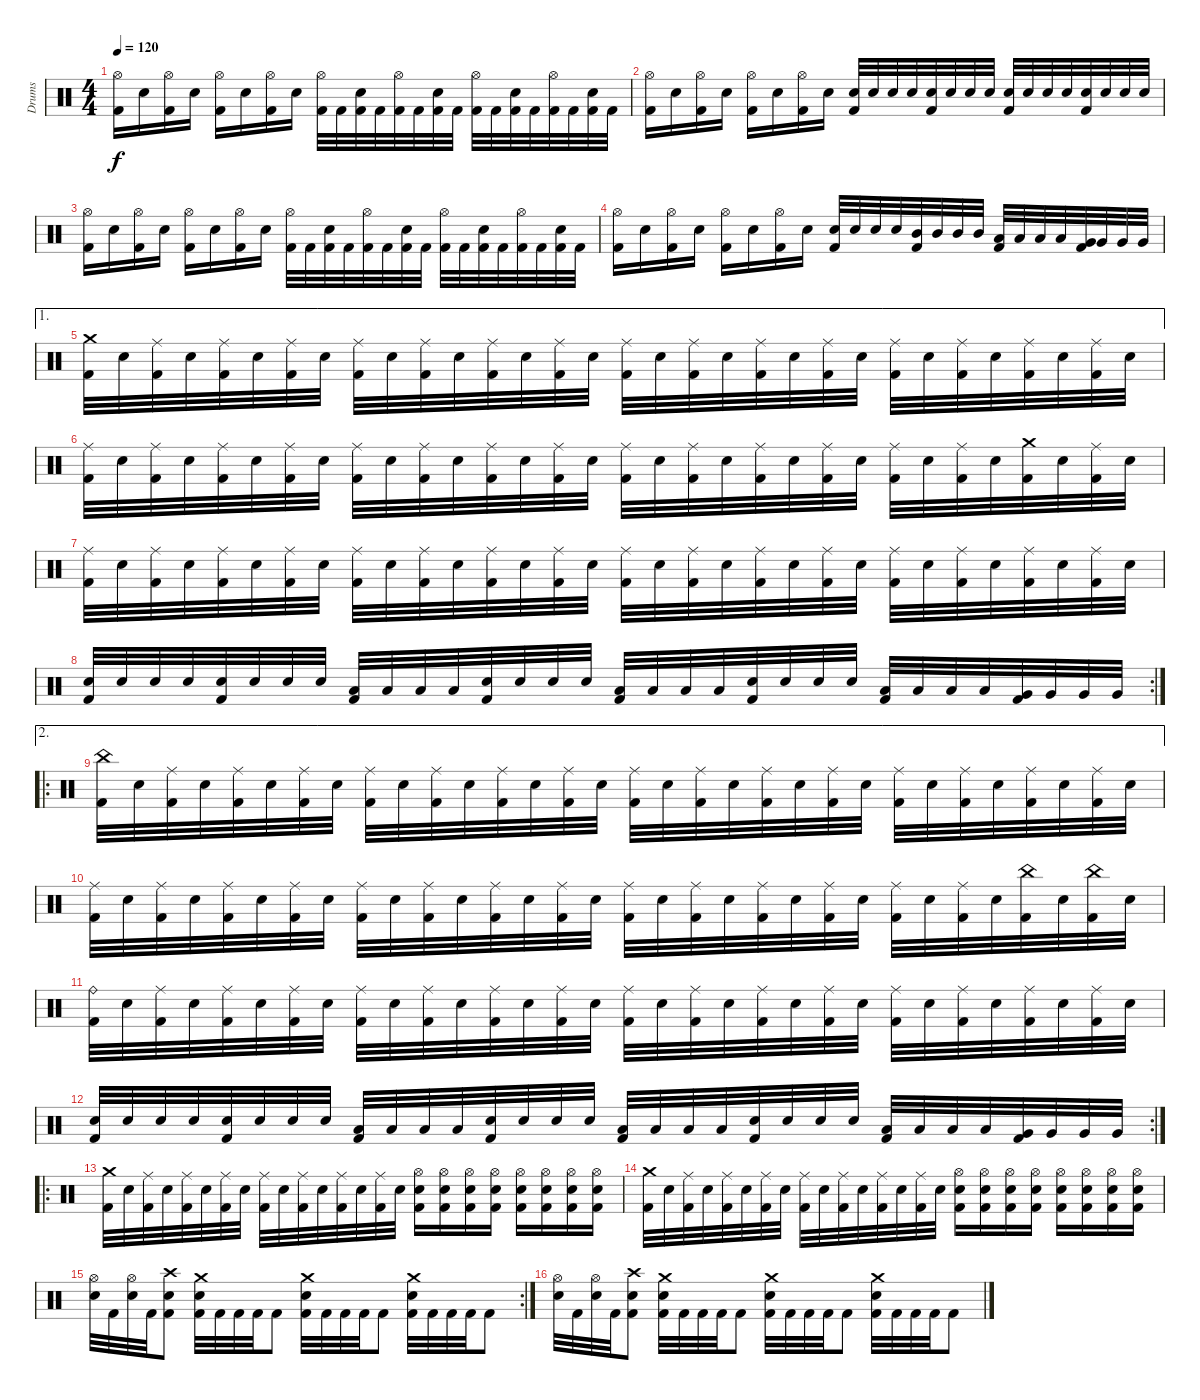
\track ("Drums" "Drums") {instrument percussion}
\staff {score}
\articulation defaults
\ts (4 4)
\tempo 120
\clef neutral
\ks c
("Hi-Hat (open)" "Kick (hit) 2").16{dy f} "Electric Snare (hit)".16 ("Hi-Hat (open)" "Kick (hit) 2").16 "Electric Snare (hit)".16 ("Hi-Hat (open)" "Kick (hit) 2").16 "Electric Snare (hit)".16 ("Hi-Hat (open)" "Kick (hit) 2").16 "Electric Snare (hit)".16 ("Hi-Hat (open)" "Kick (hit) 2").32 "Kick (hit) 2".32 ("Electric Snare (hit)" "Kick (hit) 2").32 "Kick (hit) 2".32 ("Hi-Hat (open)" "Kick (hit) 2").32 "Kick (hit) 2".32 ("Electric Snare (hit)" "Kick (hit) 2").32 "Kick (hit) 2".32 ("Hi-Hat (open)" "Kick (hit) 2").32 "Kick (hit) 2".32 ("Electric Snare (hit)" "Kick (hit) 2").32 "Kick (hit) 2".32 ("Hi-Hat (open)" "Kick (hit) 2").32 "Kick (hit) 2".32 ("Electric Snare (hit)" "Kick (hit) 2").32 "Kick (hit) 2".32 |
("Hi-Hat (open)" "Kick (hit) 2").16 "Electric Snare (hit)".16 ("Hi-Hat (open)" "Kick (hit) 2").16 "Electric Snare (hit)".16 ("Hi-Hat (open)" "Kick (hit) 2").16 "Electric Snare (hit)".16 ("Hi-Hat (open)" "Kick (hit) 2").16 "Electric Snare (hit)".16 ("Electric Snare (hit)" "Kick (hit) 2").32 "Electric Snare (hit)".32 "Electric Snare (hit)".32 "Electric Snare (hit)".32 ("Electric Snare (hit)" "Kick (hit) 2").32 "Electric Snare (hit)".32 "Electric Snare (hit)".32 "Electric Snare (hit)".32 ("Electric Snare (hit)" "Kick (hit) 2").32 "Electric Snare (hit)".32 "Electric Snare (hit)".32 "Electric Snare (hit)".32 ("Electric Snare (hit)" "Kick (hit) 2").32 "Electric Snare (hit)".32 "Electric Snare (hit)".32 "Electric Snare (hit)".32 |
("Hi-Hat (open)" "Kick (hit) 2").16 "Electric Snare (hit)".16 ("Hi-Hat (open)" "Kick (hit) 2").16 "Electric Snare (hit)".16 ("Hi-Hat (open)" "Kick (hit) 2").16 "Electric Snare (hit)".16 ("Hi-Hat (open)" "Kick (hit) 2").16 "Electric Snare (hit)".16 ("Hi-Hat (open)" "Kick (hit) 2").32 "Kick (hit) 2".32 ("Electric Snare (hit)" "Kick (hit) 2").32 "Kick (hit) 2".32 ("Hi-Hat (open)" "Kick (hit) 2").32 "Kick (hit) 2".32 ("Electric Snare (hit)" "Kick (hit) 2").32 "Kick (hit) 2".32 ("Hi-Hat (open)" "Kick (hit) 2").32 "Kick (hit) 2".32 ("Electric Snare (hit)" "Kick (hit) 2").32 "Kick (hit) 2".32 ("Hi-Hat (open)" "Kick (hit) 2").32 "Kick (hit) 2".32 ("Electric Snare (hit)" "Kick (hit) 2").32 "Kick (hit) 2".32 |
("Hi-Hat (open)" "Kick (hit) 2").16 "Electric Snare (hit)".16 ("Hi-Hat (open)" "Kick (hit) 2").16 "Electric Snare (hit)".16 ("Hi-Hat (open)" "Kick (hit) 2").16 "Electric Snare (hit)".16 ("Hi-Hat (open)" "Kick (hit) 2").16 "Electric Snare (hit)".16 ("Electric Snare (hit)" "Kick (hit) 2").32 "Electric Snare (hit)".32 "Electric Snare (hit)".32 "Electric Snare (hit)".32 ("Mid Tom (hit)" "Kick (hit) 2").32 "Mid Tom (hit)".32 "Mid Tom (hit)".32 "Mid Tom (hit)".32 ("Low Tom (hit)" "Kick (hit) 2").32 "Low Tom (hit)".32 "Low Tom (hit)".32 "Low Tom (hit)".32 ("Very Low Tom (hit)" "Kick (hit) 2").32 "Very Low Tom (hit)".32 "Very Low Tom (hit)".32 "Very Low Tom (hit)".32 |
\ae 1
("Crash medium (hit)" "Kick (hit) 2").32 "Electric Snare (hit)".32 ("Ride (middle)" "Kick (hit) 2").32 "Electric Snare (hit)".32 ("Ride (middle)" "Kick (hit) 2").32 "Electric Snare (hit)".32 ("Ride (middle)" "Kick (hit) 2").32 "Electric Snare (hit)".32 ("Ride (middle)" "Kick (hit) 2").32 "Electric Snare (hit)".32 ("Ride (middle)" "Kick (hit) 2").32 "Electric Snare (hit)".32 ("Ride (middle)" "Kick (hit) 2").32 "Electric Snare (hit)".32 ("Ride (middle)" "Kick (hit) 2").32 "Electric Snare (hit)".32 ("Ride (middle)" "Kick (hit) 2").32 "Electric Snare (hit)".32 ("Ride (middle)" "Kick (hit) 2").32 "Electric Snare (hit)".32 ("Ride (middle)" "Kick (hit) 2").32 "Electric Snare (hit)".32 ("Ride (middle)" "Kick (hit) 2").32 "Electric Snare (hit)".32 ("Ride (middle)" "Kick (hit) 2").32 "Electric Snare (hit)".32 ("Ride (middle)" "Kick (hit) 2").32 "Electric Snare (hit)".32 ("Ride (middle)" "Kick (hit) 2").32 "Electric Snare (hit)".32 ("Ride (middle)" "Kick (hit) 2").32 "Electric Snare (hit)".32 |
("Ride (middle)" "Kick (hit) 2").32 "Electric Snare (hit)".32 ("Ride (middle)" "Kick (hit) 2").32 "Electric Snare (hit)".32 ("Ride (middle)" "Kick (hit) 2").32 "Electric Snare (hit)".32 ("Ride (middle)" "Kick (hit) 2").32 "Electric Snare (hit)".32 ("Ride (middle)" "Kick (hit) 2").32 "Electric Snare (hit)".32 ("Ride (middle)" "Kick (hit) 2").32 "Electric Snare (hit)".32 ("Ride (middle)" "Kick (hit) 2").32 "Electric Snare (hit)".32 ("Ride (middle)" "Kick (hit) 2").32 "Electric Snare (hit)".32 ("Ride (middle)" "Kick (hit) 2").32 "Electric Snare (hit)".32 ("Ride (middle)" "Kick (hit) 2").32 "Electric Snare (hit)".32 ("Ride (middle)" "Kick (hit) 2").32 "Electric Snare (hit)".32 ("Ride (middle)" "Kick (hit) 2").32 "Electric Snare (hit)".32 ("Ride (middle)" "Kick (hit) 2").32 "Electric Snare (hit)".32 ("Ride (middle)" "Kick (hit) 2").32 "Electric Snare (hit)".32 ("Crash medium (hit)" "Kick (hit) 2").32 "Electric Snare (hit)".32 ("Ride (middle)" "Kick (hit) 2").32 "Electric Snare (hit)".32 |
("Ride (middle)" "Kick (hit) 2").32 "Electric Snare (hit)".32 ("Ride (middle)" "Kick (hit) 2").32 "Electric Snare (hit)".32 ("Ride (middle)" "Kick (hit) 2").32 "Electric Snare (hit)".32 ("Ride (middle)" "Kick (hit) 2").32 "Electric Snare (hit)".32 ("Ride (middle)" "Kick (hit) 2").32 "Electric Snare (hit)".32 ("Ride (middle)" "Kick (hit) 2").32 "Electric Snare (hit)".32 ("Ride (middle)" "Kick (hit) 2").32 "Electric Snare (hit)".32 ("Ride (middle)" "Kick (hit) 2").32 "Electric Snare (hit)".32 ("Ride (middle)" "Kick (hit) 2").32 "Electric Snare (hit)".32 ("Ride (middle)" "Kick (hit) 2").32 "Electric Snare (hit)".32 ("Ride (middle)" "Kick (hit) 2").32 "Electric Snare (hit)".32 ("Ride (middle)" "Kick (hit) 2").32 "Electric Snare (hit)".32 ("Ride (middle)" "Kick (hit) 2").32 "Electric Snare (hit)".32 ("Ride (middle)" "Kick (hit) 2").32 "Electric Snare (hit)".32 ("Ride (middle)" "Kick (hit) 2").32 "Electric Snare (hit)".32 ("Ride (middle)" "Kick (hit) 2").32 "Electric Snare (hit)".32 |
\rc 2
("Electric Snare (hit)" "Kick (hit) 2").32 "Electric Snare (hit)".32 "Electric Snare (hit)".32 "Electric Snare (hit)".32 ("Electric Snare (hit)" "Kick (hit) 2").32 "Electric Snare (hit)".32 "Electric Snare (hit)".32 "Electric Snare (hit)".32 ("Low Tom (hit)" "Kick (hit) 2").32 "Low Tom (hit)".32 "Low Tom (hit)".32 "Low Tom (hit)".32 ("Electric Snare (hit)" "Kick (hit) 2").32 "Electric Snare (hit)".32 "Electric Snare (hit)".32 "Electric Snare (hit)".32 ("Low Tom (hit)" "Kick (hit) 2").32 "Low Tom (hit)".32 "Low Tom (hit)".32 "Low Tom (hit)".32 ("Electric Snare (hit)" "Kick (hit) 2").32 "Electric Snare (hit)".32 "Electric Snare (hit)".32 "Electric Snare (hit)".32 ("Low Tom (hit)" "Kick (hit) 2").32 "Low Tom (hit)".32 "Low Tom (hit)".32 "Low Tom (hit)".32 ("Very Low Tom (hit)" "Kick (hit) 2").32 "Very Low Tom (hit)".32 "Very Low Tom (hit)".32 "Very Low Tom (hit)".32 |
\ae 2
\ro
("China (hit)" "Kick (hit) 2").32 "Electric Snare (hit)".32 ("Ride (middle)" "Kick (hit) 2").32 "Electric Snare (hit)".32 ("Ride (middle)" "Kick (hit) 2").32 "Electric Snare (hit)".32 ("Ride (middle)" "Kick (hit) 2").32 "Electric Snare (hit)".32 ("Ride (middle)" "Kick (hit) 2").32 "Electric Snare (hit)".32 ("Ride (middle)" "Kick (hit) 2").32 "Electric Snare (hit)".32 ("Ride (middle)" "Kick (hit) 2").32 "Electric Snare (hit)".32 ("Ride (middle)" "Kick (hit) 2").32 "Electric Snare (hit)".32 ("Ride (middle)" "Kick (hit) 2").32 "Electric Snare (hit)".32 ("Ride (middle)" "Kick (hit) 2").32 "Electric Snare (hit)".32 ("Ride (middle)" "Kick (hit) 2").32 "Electric Snare (hit)".32 ("Ride (middle)" "Kick (hit) 2").32 "Electric Snare (hit)".32 ("Ride (middle)" "Kick (hit) 2").32 "Electric Snare (hit)".32 ("Ride (middle)" "Kick (hit) 2").32 "Electric Snare (hit)".32 ("Ride (middle)" "Kick (hit) 2").32 "Electric Snare (hit)".32 ("Ride (middle)" "Kick (hit) 2").32 "Electric Snare (hit)".32 |
("Ride (middle)" "Kick (hit) 2").32 "Electric Snare (hit)".32 ("Ride (middle)" "Kick (hit) 2").32 "Electric Snare (hit)".32 ("Ride (middle)" "Kick (hit) 2").32 "Electric Snare (hit)".32 ("Ride (middle)" "Kick (hit) 2").32 "Electric Snare (hit)".32 ("Ride (middle)" "Kick (hit) 2").32 "Electric Snare (hit)".32 ("Ride (middle)" "Kick (hit) 2").32 "Electric Snare (hit)".32 ("Ride (middle)" "Kick (hit) 2").32 "Electric Snare (hit)".32 ("Ride (middle)" "Kick (hit) 2").32 "Electric Snare (hit)".32 ("Ride (middle)" "Kick (hit) 2").32 "Electric Snare (hit)".32 ("Ride (middle)" "Kick (hit) 2").32 "Electric Snare (hit)".32 ("Ride (middle)" "Kick (hit) 2").32 "Electric Snare (hit)".32 ("Ride (middle)" "Kick (hit) 2").32 "Electric Snare (hit)".32 ("Ride (middle)" "Kick (hit) 2").32 "Electric Snare (hit)".32 ("Ride (middle)" "Kick (hit) 2").32 "Electric Snare (hit)".32 ("China (hit)" "Kick (hit) 2").32 "Electric Snare (hit)".32 ("China (hit)" "Kick (hit) 2").32 "Electric Snare (hit)".32 |
("Ride (bell)" "Kick (hit) 2").32 "Electric Snare (hit)".32 ("Ride (middle)" "Kick (hit) 2").32 "Electric Snare (hit)".32 ("Ride (middle)" "Kick (hit) 2").32 "Electric Snare (hit)".32 ("Ride (middle)" "Kick (hit) 2").32 "Electric Snare (hit)".32 ("Ride (middle)" "Kick (hit) 2").32 "Electric Snare (hit)".32 ("Ride (middle)" "Kick (hit) 2").32 "Electric Snare (hit)".32 ("Ride (middle)" "Kick (hit) 2").32 "Electric Snare (hit)".32 ("Ride (middle)" "Kick (hit) 2").32 "Electric Snare (hit)".32 ("Ride (middle)" "Kick (hit) 2").32 "Electric Snare (hit)".32 ("Ride (middle)" "Kick (hit) 2").32 "Electric Snare (hit)".32 ("Ride (middle)" "Kick (hit) 2").32 "Electric Snare (hit)".32 ("Ride (middle)" "Kick (hit) 2").32 "Electric Snare (hit)".32 ("Ride (middle)" "Kick (hit) 2").32 "Electric Snare (hit)".32 ("Ride (middle)" "Kick (hit) 2").32 "Electric Snare (hit)".32 ("Ride (middle)" "Kick (hit) 2").32 "Electric Snare (hit)".32 ("Ride (middle)" "Kick (hit) 2").32 "Electric Snare (hit)".32 |
\rc 2
("Electric Snare (hit)" "Kick (hit) 2").32 "Electric Snare (hit)".32 "Electric Snare (hit)".32 "Electric Snare (hit)".32 ("Electric Snare (hit)" "Kick (hit) 2").32 "Electric Snare (hit)".32 "Electric Snare (hit)".32 "Electric Snare (hit)".32 ("Low Tom (hit)" "Kick (hit) 2").32 "Low Tom (hit)".32 "Low Tom (hit)".32 "Low Tom (hit)".32 ("Electric Snare (hit)" "Kick (hit) 2").32 "Electric Snare (hit)".32 "Electric Snare (hit)".32 "Electric Snare (hit)".32 ("Low Tom (hit)" "Kick (hit) 2").32 "Low Tom (hit)".32 "Low Tom (hit)".32 "Low Tom (hit)".32 ("Electric Snare (hit)" "Kick (hit) 2").32 "Electric Snare (hit)".32 "Electric Snare (hit)".32 "Electric Snare (hit)".32 ("Low Tom (hit)" "Kick (hit) 2").32 "Low Tom (hit)".32 "Low Tom (hit)".32 "Low Tom (hit)".32 ("Very Low Tom (hit)" "Kick (hit) 2").32 "Very Low Tom (hit)".32 "Very Low Tom (hit)".32 "Very Low Tom (hit)".32 |
\ro
("Crash medium (hit)" "Kick (hit) 2").32 "Electric Snare (hit)".32 ("Ride (middle)" "Kick (hit) 2").32 "Electric Snare (hit)".32 ("Ride (middle)" "Kick (hit) 2").32 "Electric Snare (hit)".32 ("Ride (middle)" "Kick (hit) 2").32 "Electric Snare (hit)".32 ("Ride (middle)" "Kick (hit) 2").32 "Electric Snare (hit)".32 ("Ride (middle)" "Kick (hit) 2").32 "Electric Snare (hit)".32 ("Ride (middle)" "Kick (hit) 2").32 "Electric Snare (hit)".32 ("Ride (middle)" "Kick (hit) 2").32 "Electric Snare (hit)".32 ("Electric Snare (hit)" "Hi-Hat (open)" "Kick (hit) 2").16 ("Electric Snare (hit)" "Hi-Hat (open)" "Kick (hit) 2").16 ("Electric Snare (hit)" "Hi-Hat (open)" "Kick (hit) 2").16 ("Electric Snare (hit)" "Hi-Hat (open)" "Kick (hit) 2").16 ("Electric Snare (hit)" "Hi-Hat (open)" "Kick (hit) 2").16 ("Electric Snare (hit)" "Hi-Hat (open)" "Kick (hit) 2").16 ("Electric Snare (hit)" "Hi-Hat (open)" "Kick (hit) 2").16 ("Electric Snare (hit)" "Hi-Hat (open)" "Kick (hit) 2").16 |
("Crash medium (hit)" "Kick (hit) 2").32 "Electric Snare (hit)".32 ("Ride (middle)" "Kick (hit) 2").32 "Electric Snare (hit)".32 ("Ride (middle)" "Kick (hit) 2").32 "Electric Snare (hit)".32 ("Ride (middle)" "Kick (hit) 2").32 "Electric Snare (hit)".32 ("Ride (middle)" "Kick (hit) 2").32 "Electric Snare (hit)".32 ("Ride (middle)" "Kick (hit) 2").32 "Electric Snare (hit)".32 ("Ride (middle)" "Kick (hit) 2").32 "Electric Snare (hit)".32 ("Ride (middle)" "Kick (hit) 2").32 "Electric Snare (hit)".32 ("Electric Snare (hit)" "Hi-Hat (open)" "Kick (hit) 2").16 ("Electric Snare (hit)" "Hi-Hat (open)" "Kick (hit) 2").16 ("Electric Snare (hit)" "Hi-Hat (open)" "Kick (hit) 2").16 ("Electric Snare (hit)" "Hi-Hat (open)" "Kick (hit) 2").16 ("Electric Snare (hit)" "Hi-Hat (open)" "Kick (hit) 2").16 ("Electric Snare (hit)" "Hi-Hat (open)" "Kick (hit) 2").16 ("Electric Snare (hit)" "Hi-Hat (open)" "Kick (hit) 2").16 ("Electric Snare (hit)" "Hi-Hat (open)" "Kick (hit) 2").16 |
\rc 2
("Hi-Hat (open)" "Electric Snare (hit)").32 "Kick (hit) 2".32 ("Hi-Hat (open)" "Electric Snare (hit)").32 "Kick (hit) 2".32 ("Electric Snare (hit)" "Crash high (hit)" "Kick (hit) 2").8 ("Crash medium (hit)" "Electric Snare (hit)" "Kick (hit) 2").32 "Kick (hit) 2".32 "Kick (hit) 2".32 "Kick (hit) 2".32 "Kick (hit) 2".8 ("Crash medium (hit)" "Electric Snare (hit)" "Kick (hit) 2").32 "Kick (hit) 2".32 "Kick (hit) 2".32 "Kick (hit) 2".32 "Kick (hit) 2".8 ("Crash medium (hit)" "Electric Snare (hit)" "Kick (hit) 2").32 "Kick (hit) 2".32 "Kick (hit) 2".32 "Kick (hit) 2".32 "Kick (hit) 2".8 |
("Hi-Hat (open)" "Electric Snare (hit)").32 "Kick (hit) 2".32 ("Hi-Hat (open)" "Electric Snare (hit)").32 "Kick (hit) 2".32 ("Electric Snare (hit)" "Crash high (hit)" "Kick (hit) 2").8 ("Crash medium (hit)" "Electric Snare (hit)" "Kick (hit) 2").32 "Kick (hit) 2".32 "Kick (hit) 2".32 "Kick (hit) 2".32 "Kick (hit) 2".8 ("Crash medium (hit)" "Electric Snare (hit)" "Kick (hit) 2").32 "Kick (hit) 2".32 "Kick (hit) 2".32 "Kick (hit) 2".32 "Kick (hit) 2".8 ("Crash medium (hit)" "Electric Snare (hit)" "Kick (hit) 2").32 "Kick (hit) 2".32 "Kick (hit) 2".32 "Kick (hit) 2".32 "Kick (hit) 2".8
